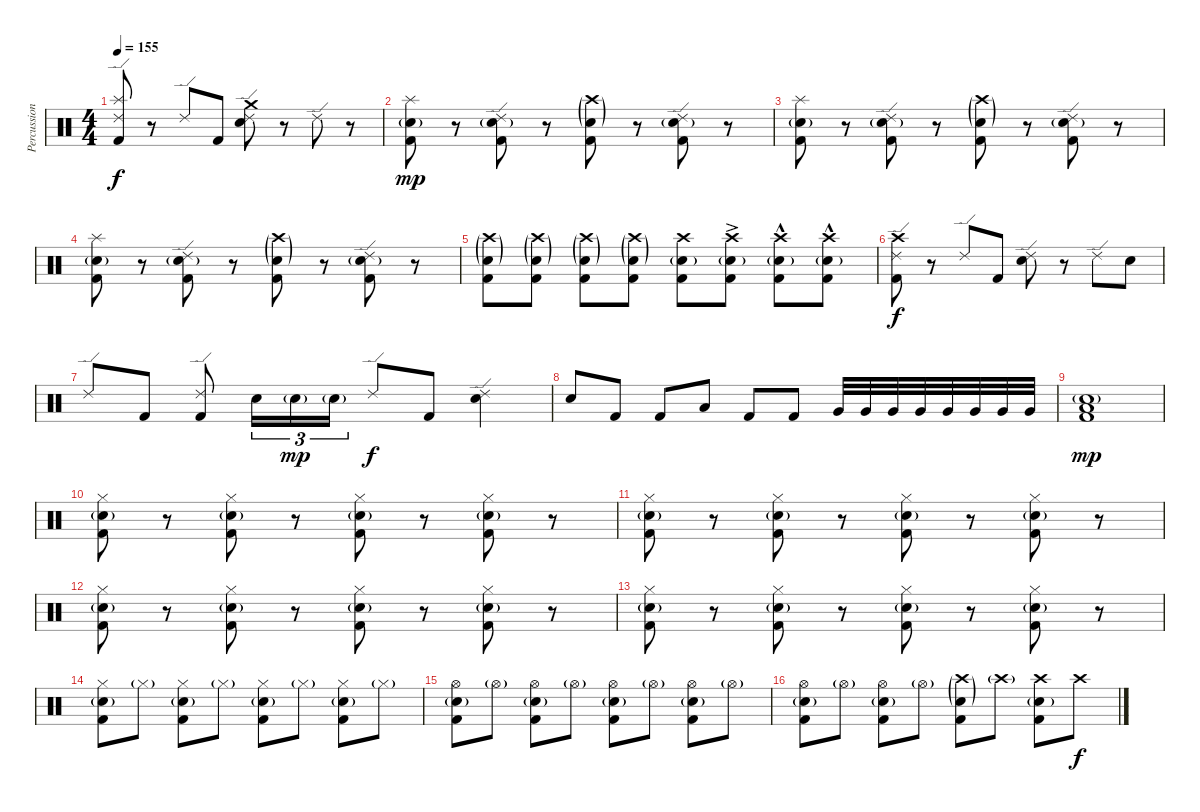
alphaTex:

\track ("Percussion" "Percussion") {instrument percussion}
\staff {score}
\articulation defaults
\ts (4 4)
\tempo 155
\clef neutral
\ks c
("Ride (edge) 2" "Splash (hit)" "Kick (hit) 2").8{dy f} r.8 "Ride (edge) 2".8 "Kick (hit) 2".8 ("Ride (edge) 2" "Crash medium (hit)" "Electric Snare (hit)").8 r.8 "Ride (edge) 2".8 r.8 |
("Splash (hit)" "Electric Snare (hit)"{g} "Kick (hit) 2").8{dy mp} r.8 ("Ride (edge) 2" "Electric Snare (hit)"{g} "Kick (hit) 2").8 r.8 ("Crash high (hit)"{g} "Electric Snare (hit)"{g} "Kick (hit) 2").8 r.8 ("Ride (edge) 2" "Electric Snare (hit)"{g} "Kick (hit) 2").8 r.8 |
("Splash (hit)" "Electric Snare (hit)"{g} "Kick (hit) 2").8 r.8 ("Ride (edge) 2" "Electric Snare (hit)"{g} "Kick (hit) 2").8 r.8 ("Crash high (hit)"{g} "Electric Snare (hit)"{g} "Kick (hit) 2").8 r.8 ("Ride (edge) 2" "Electric Snare (hit)"{g} "Kick (hit) 2").8 r.8 |
("Splash (hit)" "Electric Snare (hit)"{g} "Kick (hit) 2").8 r.8 ("Ride (edge) 2" "Electric Snare (hit)"{g} "Kick (hit) 2").8 r.8 ("Crash high (hit)"{g} "Electric Snare (hit)"{g} "Kick (hit) 2").8 r.8 ("Ride (edge) 2" "Electric Snare (hit)"{g} "Kick (hit) 2").8 r.8 |
("Crash high (hit)"{g} "Electric Snare (hit)"{g} "Kick (hit) 2").8 ("Crash high (hit)"{g} "Electric Snare (hit)"{g} "Kick (hit) 2").8 ("Crash high (hit)"{g} "Electric Snare (hit)"{g} "Kick (hit) 2").8 ("Crash high (hit)"{g} "Electric Snare (hit)"{g} "Kick (hit) 2").8 ("Crash high (hit)" "Electric Snare (hit)"{g} "Kick (hit) 2").8 ("Crash high (hit)"{ac} "Electric Snare (hit)"{g} "Kick (hit) 2").8 ("Crash high (hit)"{hac} "Electric Snare (hit)"{g} "Kick (hit) 2").8 ("Crash high (hit)"{hac} "Electric Snare (hit)"{g} "Kick (hit) 2").8 |
("Ride (edge) 2" "Crash high (hit)" "Kick (hit) 2").8{dy f} r.8 "Ride (edge) 2".8 "Kick (hit) 2".8 ("Ride (edge) 2" "Electric Snare (hit)").8 r.8 "Ride (edge) 2".8 "Electric Snare (hit)".8 |
"Ride (edge) 2".8 "Kick (hit) 2".8 ("Ride (edge) 2" "Kick (hit) 2").8 "Electric Snare (hit)".16{tu (3 2)} "Electric Snare (hit)"{g}.16{tu (3 2) dy mp} "Electric Snare (hit)"{g}.16{tu (3 2)} "Ride (edge) 2".8{dy f} "Kick (hit) 2".8 ("Ride (edge) 2" "Electric Snare (hit)").4 |
"Electric Snare (hit)".8 "Kick (hit) 2".8 "Kick (hit) 2".8 "Low Tom (hit)".8 "Kick (hit) 2".8 "Kick (hit) 2".8 "Very Low Tom (hit)".32 "Very Low Tom (hit)".32 "Very Low Tom (hit)".32 "Very Low Tom (hit)".32 "Very Low Tom (hit)".32 "Very Low Tom (hit)".32 "Very Low Tom (hit)".32 "Very Low Tom (hit)".32 |
("Low Floor Tom (hit)" "Electric Snare (hit)"{g} "Kick (hit) 2").1{dy mp} |
("Hi-Hat (closed)" "Electric Snare (hit)"{g} "Kick (hit) 2").8 r.8 ("Hi-Hat (closed)" "Electric Snare (hit)"{g} "Kick (hit) 2").8 r.8 ("Hi-Hat (closed)" "Electric Snare (hit)"{g} "Kick (hit) 2").8 r.8 ("Hi-Hat (closed)" "Electric Snare (hit)"{g} "Kick (hit) 2").8 r.8 |
("Hi-Hat (closed)" "Electric Snare (hit)"{g} "Kick (hit) 2").8 r.8 ("Hi-Hat (closed)" "Electric Snare (hit)"{g} "Kick (hit) 2").8 r.8 ("Hi-Hat (closed)" "Electric Snare (hit)"{g} "Kick (hit) 2").8 r.8 ("Hi-Hat (closed)" "Electric Snare (hit)"{g} "Kick (hit) 2").8 r.8 |
("Hi-Hat (closed)" "Electric Snare (hit)"{g} "Kick (hit) 2").8 r.8 ("Hi-Hat (closed)" "Electric Snare (hit)"{g} "Kick (hit) 2").8 r.8 ("Hi-Hat (closed)" "Electric Snare (hit)"{g} "Kick (hit) 2").8 r.8 ("Hi-Hat (closed)" "Electric Snare (hit)"{g} "Kick (hit) 2").8 r.8 |
("Hi-Hat (closed)" "Electric Snare (hit)"{g} "Kick (hit) 2").8 r.8 ("Hi-Hat (closed)" "Electric Snare (hit)"{g} "Kick (hit) 2").8 r.8 ("Hi-Hat (closed)" "Electric Snare (hit)"{g} "Kick (hit) 2").8 r.8 ("Hi-Hat (closed)" "Electric Snare (hit)"{g} "Kick (hit) 2").8 r.8 |
("Hi-Hat (closed)" "Electric Snare (hit)"{g} "Kick (hit) 2").8 "Hi-Hat (closed)"{g}.8 ("Hi-Hat (closed)" "Electric Snare (hit)"{g} "Kick (hit) 2").8 "Hi-Hat (closed)"{g}.8 ("Hi-Hat (closed)" "Electric Snare (hit)"{g} "Kick (hit) 2").8 "Hi-Hat (closed)"{g}.8 ("Hi-Hat (closed)" "Electric Snare (hit)"{g} "Kick (hit) 2").8 "Hi-Hat (closed)"{g}.8 |
("Hi-Hat (open)" "Electric Snare (hit)"{g} "Kick (hit) 2").8 "Hi-Hat (open)"{g}.8 ("Hi-Hat (open)" "Electric Snare (hit)"{g} "Kick (hit) 2").8 "Hi-Hat (open)"{g}.8 ("Hi-Hat (open)" "Electric Snare (hit)"{g} "Kick (hit) 2").8 "Hi-Hat (open)"{g}.8 ("Hi-Hat (open)" "Electric Snare (hit)"{g} "Kick (hit) 2").8 "Hi-Hat (open)"{g}.8 |
("Hi-Hat (open)" "Electric Snare (hit)"{g} "Kick (hit) 2").8 "Hi-Hat (open)"{g}.8 ("Hi-Hat (open)" "Electric Snare (hit)"{g} "Kick (hit) 2").8 "Hi-Hat (open)"{g}.8 ("Crash high (hit)"{g} "Electric Snare (hit)"{g} "Kick (hit) 2").8 "Crash high (hit)"{g}.8 ("Crash high (hit)" "Electric Snare (hit)"{g} "Kick (hit) 2").8 "Crash high (hit)".8{dy f}
